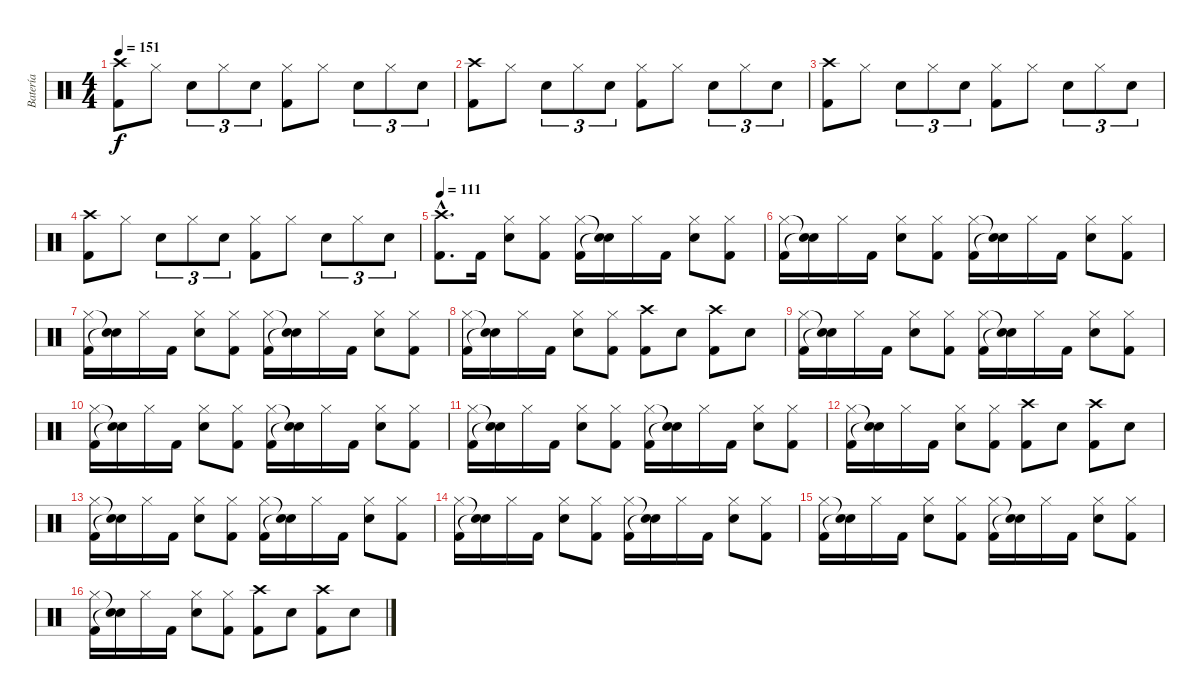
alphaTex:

\track ("Batería" "Batería") {instrument percussion}
\staff {score}
\articulation defaults
\ts (4 4)
\tempo 151
\clef neutral
\ks c
("Crash high (hit)" "Kick (hit) 2").8{dy f} "Hi-Hat (closed)".8 "Snare (hit) 2".8{tu (3 2)} "Hi-Hat (closed)".8{tu (3 2)} "Snare (hit) 2".8{tu (3 2)} ("Hi-Hat (closed)" "Kick (hit) 2").8 "Hi-Hat (closed)".8 "Snare (hit) 2".8{tu (3 2)} "Hi-Hat (closed)".8{tu (3 2)} "Snare (hit) 2".8{tu (3 2)} |
("Crash high (hit)" "Kick (hit) 2").8 "Hi-Hat (closed)".8 "Snare (hit) 2".8{tu (3 2)} "Hi-Hat (closed)".8{tu (3 2)} "Snare (hit) 2".8{tu (3 2)} ("Hi-Hat (closed)" "Kick (hit) 2").8 "Hi-Hat (closed)".8 "Snare (hit) 2".8{tu (3 2)} "Hi-Hat (closed)".8{tu (3 2)} "Snare (hit) 2".8{tu (3 2)} |
("Crash high (hit)" "Kick (hit) 2").8 "Hi-Hat (closed)".8 "Snare (hit) 2".8{tu (3 2)} "Hi-Hat (closed)".8{tu (3 2)} "Snare (hit) 2".8{tu (3 2)} ("Hi-Hat (closed)" "Kick (hit) 2").8 "Hi-Hat (closed)".8 "Snare (hit) 2".8{tu (3 2)} "Hi-Hat (closed)".8{tu (3 2)} "Snare (hit) 2".8{tu (3 2)} |
("Crash high (hit)" "Kick (hit) 2").8 "Hi-Hat (closed)".8 "Snare (hit) 2".8{tu (3 2)} "Hi-Hat (closed)".8{tu (3 2)} "Snare (hit) 2".8{tu (3 2)} ("Hi-Hat (closed)" "Kick (hit) 2").8 "Hi-Hat (closed)".8 "Snare (hit) 2".8{tu (3 2)} "Hi-Hat (closed)".8{tu (3 2)} "Snare (hit) 2".8{tu (3 2)} |
\tempo 111
("Crash high (hit)"{hac} "Kick (hit) 2"{hac}).8{d} "Kick (hit) 2".16 ("Hi-Hat (closed)" "Snare (hit) 2").8 ("Hi-Hat (closed)" "Kick (hit) 2").8 ("Hi-Hat (closed)" "Kick (hit) 2").16 ("Snare (hit)"{t} "Snare (hit)"{t}).16 "Hi-Hat (closed)".16 "Kick (hit) 2".16 ("Hi-Hat (closed)" "Snare (hit) 2").8 ("Hi-Hat (closed)" "Kick (hit) 2").8 |
("Hi-Hat (closed)" "Kick (hit) 2").16 ("Snare (hit)"{t} "Snare (hit)"{t}).16 "Hi-Hat (closed)".16 "Kick (hit) 2".16 ("Hi-Hat (closed)" "Snare (hit) 2").8 ("Hi-Hat (closed)" "Kick (hit) 2").8 ("Hi-Hat (closed)" "Kick (hit) 2").16 ("Snare (hit)"{t} "Snare (hit)"{t}).16 "Hi-Hat (closed)".16 "Kick (hit) 2".16 ("Hi-Hat (closed)" "Snare (hit) 2").8 ("Hi-Hat (closed)" "Kick (hit) 2").8 |
("Hi-Hat (closed)" "Kick (hit) 2").16 ("Snare (hit)"{t} "Snare (hit)"{t}).16 "Hi-Hat (closed)".16 "Kick (hit) 2".16 ("Hi-Hat (closed)" "Snare (hit) 2").8 ("Hi-Hat (closed)" "Kick (hit) 2").8 ("Hi-Hat (closed)" "Kick (hit) 2").16 ("Snare (hit)"{t} "Snare (hit)"{t}).16 "Hi-Hat (closed)".16 "Kick (hit) 2".16 ("Hi-Hat (closed)" "Snare (hit) 2").8 ("Hi-Hat (closed)" "Kick (hit) 2").8 |
("Hi-Hat (closed)" "Kick (hit) 2").16 ("Snare (hit)"{t} "Snare (hit)"{t}).16 "Hi-Hat (closed)".16 "Kick (hit) 2".16 ("Hi-Hat (closed)" "Snare (hit) 2").8 ("Hi-Hat (closed)" "Kick (hit) 2").8 ("Crash high (hit)" "Kick (hit) 2").8 "Snare (hit) 2".8 ("Crash high (hit)" "Kick (hit) 2").8 "Snare (hit) 2".8 |
("Hi-Hat (closed)" "Kick (hit) 2").16 ("Snare (hit)"{t} "Snare (hit)"{t}).16 "Hi-Hat (closed)".16 "Kick (hit) 2".16 ("Hi-Hat (closed)" "Snare (hit) 2").8 ("Hi-Hat (closed)" "Kick (hit) 2").8 ("Hi-Hat (closed)" "Kick (hit) 2").16 ("Snare (hit)"{t} "Snare (hit)"{t}).16 "Hi-Hat (closed)".16 "Kick (hit) 2".16 ("Hi-Hat (closed)" "Snare (hit) 2").8 ("Hi-Hat (closed)" "Kick (hit) 2").8 |
("Hi-Hat (closed)" "Kick (hit) 2").16 ("Snare (hit)"{t} "Snare (hit)"{t}).16 "Hi-Hat (closed)".16 "Kick (hit) 2".16 ("Hi-Hat (closed)" "Snare (hit) 2").8 ("Hi-Hat (closed)" "Kick (hit) 2").8 ("Hi-Hat (closed)" "Kick (hit) 2").16 ("Snare (hit)"{t} "Snare (hit)"{t}).16 "Hi-Hat (closed)".16 "Kick (hit) 2".16 ("Hi-Hat (closed)" "Snare (hit) 2").8 ("Hi-Hat (closed)" "Kick (hit) 2").8 |
("Hi-Hat (closed)" "Kick (hit) 2").16 ("Snare (hit)"{t} "Snare (hit)"{t}).16 "Hi-Hat (closed)".16 "Kick (hit) 2".16 ("Hi-Hat (closed)" "Snare (hit) 2").8 ("Hi-Hat (closed)" "Kick (hit) 2").8 ("Hi-Hat (closed)" "Kick (hit) 2").16 ("Snare (hit)"{t} "Snare (hit)"{t}).16 "Hi-Hat (closed)".16 "Kick (hit) 2".16 ("Hi-Hat (closed)" "Snare (hit) 2").8 ("Hi-Hat (closed)" "Kick (hit) 2").8 |
("Hi-Hat (closed)" "Kick (hit) 2").16 ("Snare (hit)"{t} "Snare (hit)"{t}).16 "Hi-Hat (closed)".16 "Kick (hit) 2".16 ("Hi-Hat (closed)" "Snare (hit) 2").8 ("Hi-Hat (closed)" "Kick (hit) 2").8 ("Crash high (hit)" "Kick (hit) 2").8 "Snare (hit) 2".8 ("Crash high (hit)" "Kick (hit) 2").8 "Snare (hit) 2".8 |
("Hi-Hat (closed)" "Kick (hit) 2").16 ("Snare (hit)"{t} "Snare (hit)"{t}).16 "Hi-Hat (closed)".16 "Kick (hit) 2".16 ("Hi-Hat (closed)" "Snare (hit) 2").8 ("Hi-Hat (closed)" "Kick (hit) 2").8 ("Hi-Hat (closed)" "Kick (hit) 2").16 ("Snare (hit)"{t} "Snare (hit)"{t}).16 "Hi-Hat (closed)".16 "Kick (hit) 2".16 ("Hi-Hat (closed)" "Snare (hit) 2").8 ("Hi-Hat (closed)" "Kick (hit) 2").8 |
("Hi-Hat (closed)" "Kick (hit) 2").16 ("Snare (hit)"{t} "Snare (hit)"{t}).16 "Hi-Hat (closed)".16 "Kick (hit) 2".16 ("Hi-Hat (closed)" "Snare (hit) 2").8 ("Hi-Hat (closed)" "Kick (hit) 2").8 ("Hi-Hat (closed)" "Kick (hit) 2").16 ("Snare (hit)"{t} "Snare (hit)"{t}).16 "Hi-Hat (closed)".16 "Kick (hit) 2".16 ("Hi-Hat (closed)" "Snare (hit) 2").8 ("Hi-Hat (closed)" "Kick (hit) 2").8 |
("Hi-Hat (closed)" "Kick (hit) 2").16 ("Snare (hit)"{t} "Snare (hit)"{t}).16 "Hi-Hat (closed)".16 "Kick (hit) 2".16 ("Hi-Hat (closed)" "Snare (hit) 2").8 ("Hi-Hat (closed)" "Kick (hit) 2").8 ("Hi-Hat (closed)" "Kick (hit) 2").16 ("Snare (hit)"{t} "Snare (hit)"{t}).16 "Hi-Hat (closed)".16 "Kick (hit) 2".16 ("Hi-Hat (closed)" "Snare (hit) 2").8 ("Hi-Hat (closed)" "Kick (hit) 2").8 |
("Hi-Hat (closed)" "Kick (hit) 2").16 ("Snare (hit)"{t} "Snare (hit)"{t}).16 "Hi-Hat (closed)".16 "Kick (hit) 2".16 ("Hi-Hat (closed)" "Snare (hit) 2").8 ("Hi-Hat (closed)" "Kick (hit) 2").8 ("Crash high (hit)" "Kick (hit) 2").8 "Snare (hit) 2".8 ("Crash high (hit)" "Kick (hit) 2").8 "Snare (hit) 2".8
